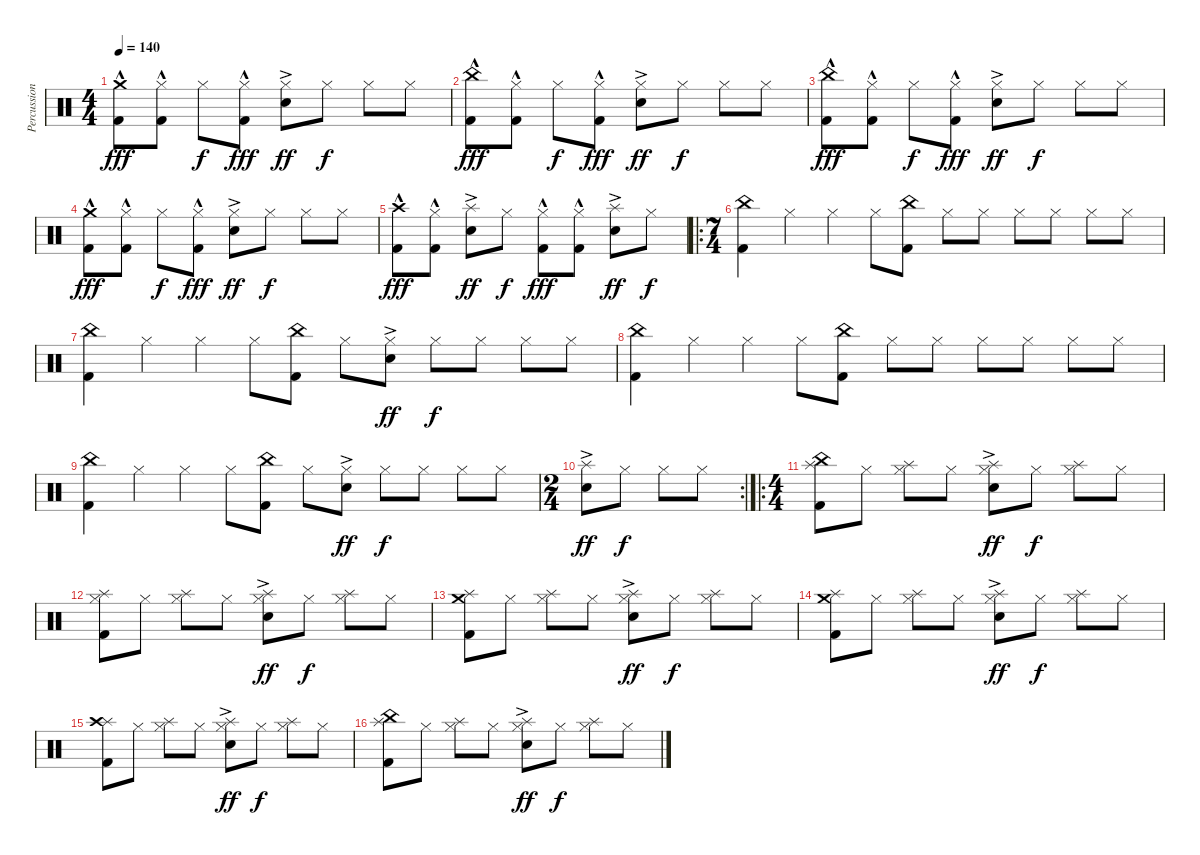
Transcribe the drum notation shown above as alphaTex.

\track ("Percussion" "Percussion") {instrument percussion}
\staff {score}
\articulation defaults
\ts (4 4)
\tempo 140
\clef neutral
\ks c
("Crash medium (hit)" "Kick (hit) 2"{hac}).8{dy fff} ("Hi-Hat (closed)" "Kick (hit) 2"{hac}).8 "Hi-Hat (closed)".8{dy f} ("Hi-Hat (closed)" "Kick (hit) 2"{hac}).8{dy fff} ("Hi-Hat (closed)" "Snare (hit) 2"{ac}).8{dy ff} "Hi-Hat (closed)".8{dy f} "Hi-Hat (closed)".8 "Hi-Hat (closed)".8 |
("China (hit)" "Kick (hit) 2"{hac}).8{dy fff} ("Hi-Hat (closed)" "Kick (hit) 2"{hac}).8 "Hi-Hat (closed)".8{dy f} ("Hi-Hat (closed)" "Kick (hit) 2"{hac}).8{dy fff} ("Hi-Hat (closed)" "Snare (hit) 2"{ac}).8{dy ff} "Hi-Hat (closed)".8{dy f} "Hi-Hat (closed)".8 "Hi-Hat (closed)".8 |
("China (hit)" "Kick (hit) 2"{hac}).8{dy fff} ("Hi-Hat (closed)" "Kick (hit) 2"{hac}).8 "Hi-Hat (closed)".8{dy f} ("Hi-Hat (closed)" "Kick (hit) 2"{hac}).8{dy fff} ("Hi-Hat (closed)" "Snare (hit) 2"{ac}).8{dy ff} "Hi-Hat (closed)".8{dy f} "Hi-Hat (closed)".8 "Hi-Hat (closed)".8 |
("Crash medium (hit)" "Kick (hit) 2"{hac}).8{dy fff} ("Hi-Hat (closed)" "Kick (hit) 2"{hac}).8 "Hi-Hat (closed)".8{dy f} ("Hi-Hat (closed)" "Kick (hit) 2"{hac}).8{dy fff} ("Hi-Hat (closed)" "Snare (hit) 2"{ac}).8{dy ff} "Hi-Hat (closed)".8{dy f} "Hi-Hat (closed)".8 "Hi-Hat (closed)".8 |
("Crash high (hit)" "Kick (hit) 2"{hac}).8{dy fff} ("Hi-Hat (closed)" "Kick (hit) 2"{hac}).8 ("Splash (hit)" "Snare (hit) 2"{ac}).8{dy ff} "Hi-Hat (closed)".8{dy f} ("Hi-Hat (closed)" "Kick (hit) 2"{hac}).8{dy fff} ("Hi-Hat (closed)" "Kick (hit) 2"{hac}).8 ("Splash (hit)" "Snare (hit) 2"{ac}).8{dy ff} "Hi-Hat (closed)".8{dy f} |
\ro
\ts (7 4)
("China (hit)" "Kick (hit) 2").4 "Hi-Hat (closed)".4 "Hi-Hat (closed)".4 "Hi-Hat (closed)".8 ("China (hit)" "Kick (hit) 2").8 "Hi-Hat (closed)".8 "Hi-Hat (closed)".8 "Hi-Hat (closed)".8 "Hi-Hat (closed)".8 "Hi-Hat (closed)".8 "Hi-Hat (closed)".8 |
("China (hit)" "Kick (hit) 2").4 "Hi-Hat (closed)".4 "Hi-Hat (closed)".4 "Hi-Hat (closed)".8 ("China (hit)" "Kick (hit) 2").8 "Hi-Hat (closed)".8 ("Hi-Hat (closed)" "Snare (hit) 2"{ac}).8{dy ff} "Hi-Hat (closed)".8{dy f} "Hi-Hat (closed)".8 "Hi-Hat (closed)".8 "Hi-Hat (closed)".8 |
("China (hit)" "Kick (hit) 2").4 "Hi-Hat (closed)".4 "Hi-Hat (closed)".4 "Hi-Hat (closed)".8 ("China (hit)" "Kick (hit) 2").8 "Hi-Hat (closed)".8 "Hi-Hat (closed)".8 "Hi-Hat (closed)".8 "Hi-Hat (closed)".8 "Hi-Hat (closed)".8 "Hi-Hat (closed)".8 |
("China (hit)" "Kick (hit) 2").4 "Hi-Hat (closed)".4 "Hi-Hat (closed)".4 "Hi-Hat (closed)".8 ("China (hit)" "Kick (hit) 2").8 "Hi-Hat (closed)".8 ("Hi-Hat (closed)" "Snare (hit) 2"{ac}).8{dy ff} "Hi-Hat (closed)".8{dy f} "Hi-Hat (closed)".8 "Hi-Hat (closed)".8 "Hi-Hat (closed)".8 |
\rc 2
\ts (2 4)
("Splash (hit)" "Snare (hit) 2"{ac}).8{dy ff} "Hi-Hat (closed)".8{dy f} "Hi-Hat (closed)".8 "Hi-Hat (closed)".8 |
\ro
\ts (4 4)
("Splash (hit)" "China (hit)" "Kick (hit) 2").8 "Hi-Hat (closed)".8 ("Splash (hit)" "Hi-Hat (closed)").8 "Hi-Hat (closed)".8 ("Splash (hit)" "Hi-Hat (closed)" "Snare (hit) 2"{ac}).8{dy ff} "Hi-Hat (closed)".8{dy f} ("Splash (hit)" "Hi-Hat (closed)").8 "Hi-Hat (closed)".8 |
("Splash (hit)" "Hi-Hat (closed)" "Kick (hit) 2").8 "Hi-Hat (closed)".8 ("Splash (hit)" "Hi-Hat (closed)").8 "Hi-Hat (closed)".8 ("Splash (hit)" "Hi-Hat (closed)" "Snare (hit) 2"{ac}).8{dy ff} "Hi-Hat (closed)".8{dy f} ("Splash (hit)" "Hi-Hat (closed)").8 "Hi-Hat (closed)".8 |
("Splash (hit)" "Crash medium (hit)" "Kick (hit) 2").8 "Hi-Hat (closed)".8 ("Splash (hit)" "Hi-Hat (closed)").8 "Hi-Hat (closed)".8 ("Splash (hit)" "Hi-Hat (closed)" "Snare (hit) 2"{ac}).8{dy ff} "Hi-Hat (closed)".8{dy f} ("Splash (hit)" "Hi-Hat (closed)").8 "Hi-Hat (closed)".8 |
("Splash (hit)" "Crash medium (hit)" "Kick (hit) 2").8 "Hi-Hat (closed)".8 ("Splash (hit)" "Hi-Hat (closed)").8 "Hi-Hat (closed)".8 ("Splash (hit)" "Hi-Hat (closed)" "Snare (hit) 2"{ac}).8{dy ff} "Hi-Hat (closed)".8{dy f} ("Splash (hit)" "Hi-Hat (closed)").8 "Hi-Hat (closed)".8 |
("Splash (hit)" "Crash high (hit)" "Kick (hit) 2").8 "Hi-Hat (closed)".8 ("Splash (hit)" "Hi-Hat (closed)").8 "Hi-Hat (closed)".8 ("Splash (hit)" "Hi-Hat (closed)" "Snare (hit) 2"{ac}).8{dy ff} "Hi-Hat (closed)".8{dy f} ("Splash (hit)" "Hi-Hat (closed)").8 "Hi-Hat (closed)".8 |
("Splash (hit)" "China (hit)" "Kick (hit) 2").8 "Hi-Hat (closed)".8 ("Splash (hit)" "Hi-Hat (closed)").8 "Hi-Hat (closed)".8 ("Splash (hit)" "Hi-Hat (closed)" "Snare (hit) 2"{ac}).8{dy ff} "Hi-Hat (closed)".8{dy f} ("Splash (hit)" "Hi-Hat (closed)").8 "Hi-Hat (closed)".8
